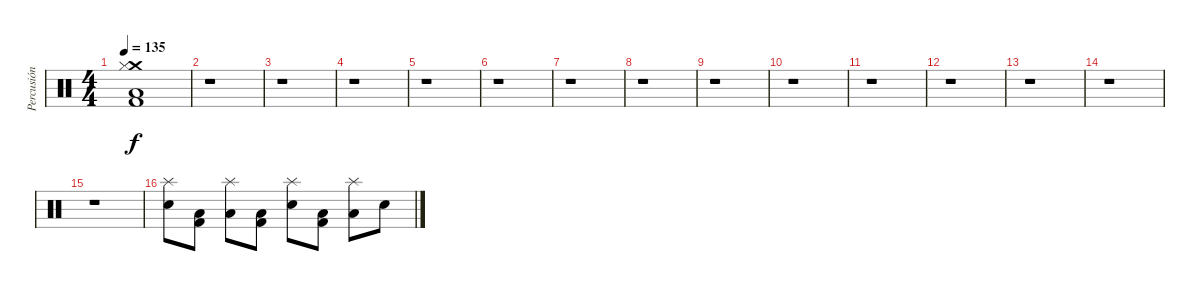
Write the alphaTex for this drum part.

\track ("Percusión" "Percusión") {instrument percussion}
\staff {score}
\articulation defaults
\ts (4 4)
\tempo 135
\clef neutral
\ks c
("Crash medium (hit)" "Kick (hit) 2" "Low Floor Tom (hit)" "Hi-Hat (closed)").1{dy f} |
r.1 |
r.1 |
r.1 |
r.1 |
r.1 |
r.1 |
r.1 |
r.1 |
r.1 |
r.1 |
r.1 |
r.1 |
r.1 |
r.1 |
("Splash (hit)" "Snare (hit) 2").8{volume 16} ("Kick (hit) 2" "Low Floor Tom (hit)").8 ("Splash (hit)" "Low Floor Tom (hit)").8 ("Kick (hit) 2" "Low Floor Tom (hit)").8 ("Splash (hit)" "Snare (hit) 2").8 ("Kick (hit) 2" "Low Floor Tom (hit)").8 ("Splash (hit)" "Low Floor Tom (hit)").8 "Snare (hit) 2".8
